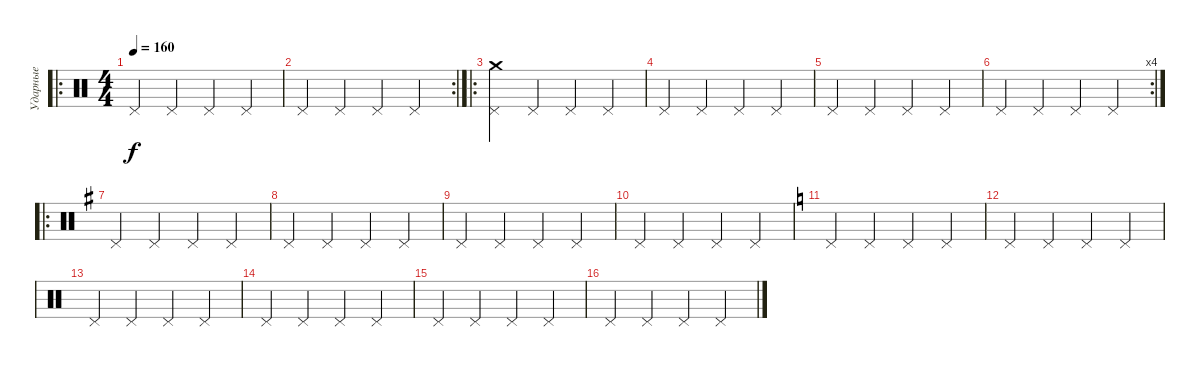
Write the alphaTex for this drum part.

\track ("Ударные" "Ударные") {instrument percussion}
\staff {score}
\articulation defaults
\ro
\ts (4 4)
\tempo 160
\clef neutral
\ks c "Pedal Hi-Hat (hit)".4{dy f} "Pedal Hi-Hat (hit)".4 "Pedal Hi-Hat (hit)".4 "Pedal Hi-Hat (hit)".4
|
\rc 2 "Pedal Hi-Hat (hit)".4 "Pedal Hi-Hat (hit)".4 "Pedal Hi-Hat (hit)".4 "Pedal Hi-Hat (hit)".4
|
\ro
("Pedal Hi-Hat (hit)" "Crash medium (hit)").4 "Pedal Hi-Hat (hit)".4 "Pedal Hi-Hat (hit)".4 "Pedal Hi-Hat (hit)".4 |
"Pedal Hi-Hat (hit)".4 "Pedal Hi-Hat (hit)".4 "Pedal Hi-Hat (hit)".4 "Pedal Hi-Hat (hit)".4 |
"Pedal Hi-Hat (hit)".4 "Pedal Hi-Hat (hit)".4 "Pedal Hi-Hat (hit)".4 "Pedal Hi-Hat (hit)".4 |
\rc 4 "Pedal Hi-Hat (hit)".4 "Pedal Hi-Hat (hit)".4 "Pedal Hi-Hat (hit)".4 "Pedal Hi-Hat (hit)".4
|
\ro
\ks g "Pedal Hi-Hat (hit)".4 "Pedal Hi-Hat (hit)".4 "Pedal Hi-Hat (hit)".4 "Pedal Hi-Hat (hit)".4
|
"Pedal Hi-Hat (hit)".4 "Pedal Hi-Hat (hit)".4 "Pedal Hi-Hat (hit)".4 "Pedal Hi-Hat (hit)".4 |
"Pedal Hi-Hat (hit)".4 "Pedal Hi-Hat (hit)".4 "Pedal Hi-Hat (hit)".4 "Pedal Hi-Hat (hit)".4 |
"Pedal Hi-Hat (hit)".4 "Pedal Hi-Hat (hit)".4 "Pedal Hi-Hat (hit)".4 "Pedal Hi-Hat (hit)".4 |
\ks c "Pedal Hi-Hat (hit)".4 "Pedal Hi-Hat (hit)".4 "Pedal Hi-Hat (hit)".4 "Pedal Hi-Hat (hit)".4
|
"Pedal Hi-Hat (hit)".4 "Pedal Hi-Hat (hit)".4 "Pedal Hi-Hat (hit)".4 "Pedal Hi-Hat (hit)".4 |
"Pedal Hi-Hat (hit)".4 "Pedal Hi-Hat (hit)".4 "Pedal Hi-Hat (hit)".4 "Pedal Hi-Hat (hit)".4 |
"Pedal Hi-Hat (hit)".4 "Pedal Hi-Hat (hit)".4 "Pedal Hi-Hat (hit)".4 "Pedal Hi-Hat (hit)".4 |
"Pedal Hi-Hat (hit)".4 "Pedal Hi-Hat (hit)".4 "Pedal Hi-Hat (hit)".4 "Pedal Hi-Hat (hit)".4 |
"Pedal Hi-Hat (hit)".4 "Pedal Hi-Hat (hit)".4 "Pedal Hi-Hat (hit)".4 "Pedal Hi-Hat (hit)".4
